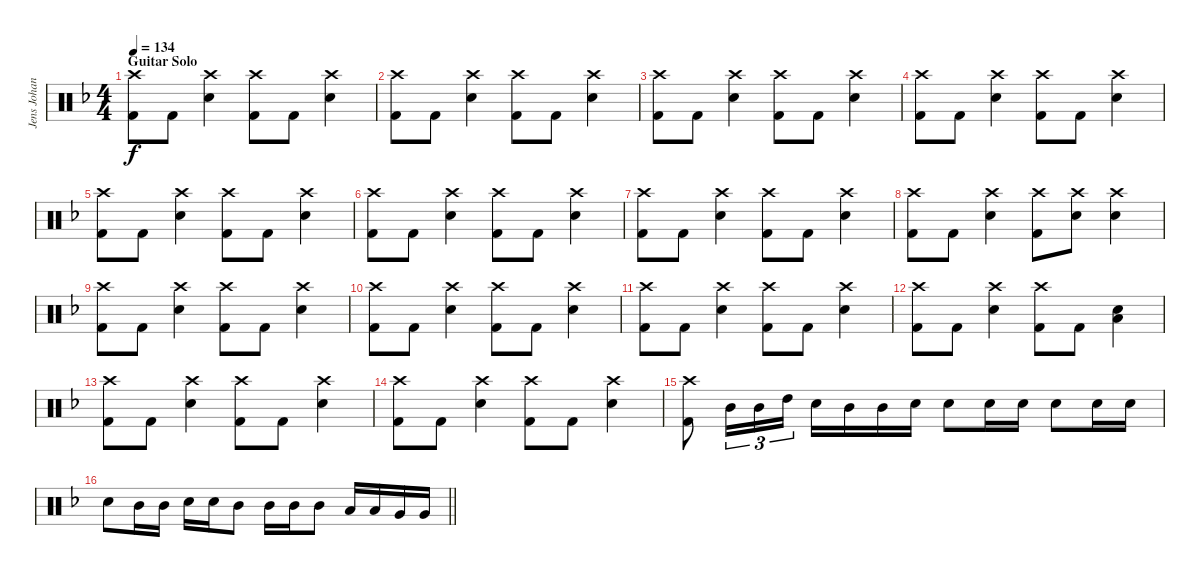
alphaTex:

\track ("Jens Johansson" "Jens Johan") {instrument percussion}
\staff {score}
\articulation defaults
\ts (4 4)
\section ("" "Guitar Solo")
\tempo 134
\clef neutral
\ks f
("Crash high (hit)" "Kick (hit) 2").8{dy f} "Kick (hit) 2".8 ("Crash high (hit)" "Electric Snare (hit)").4 ("Crash high (hit)" "Kick (hit) 2").8 "Kick (hit) 2".8 ("Crash high (hit)" "Electric Snare (hit)").4 |
("Crash high (hit)" "Kick (hit) 2").8 "Kick (hit) 2".8 ("Crash high (hit)" "Electric Snare (hit)").4 ("Crash high (hit)" "Kick (hit) 2").8 "Kick (hit) 2".8 ("Crash high (hit)" "Electric Snare (hit)").4 |
("Crash high (hit)" "Kick (hit) 2").8 "Kick (hit) 2".8 ("Crash high (hit)" "Electric Snare (hit)").4 ("Crash high (hit)" "Kick (hit) 2").8 "Kick (hit) 2".8 ("Crash high (hit)" "Electric Snare (hit)").4 |
("Crash high (hit)" "Kick (hit) 2").8 "Kick (hit) 2".8 ("Crash high (hit)" "Electric Snare (hit)").4 ("Crash high (hit)" "Kick (hit) 2").8 "Kick (hit) 2".8 ("Crash high (hit)" "Electric Snare (hit)").4 |
("Crash high (hit)" "Kick (hit) 2").8 "Kick (hit) 2".8 ("Crash high (hit)" "Electric Snare (hit)").4 ("Crash high (hit)" "Kick (hit) 2").8 "Kick (hit) 2".8 ("Crash high (hit)" "Electric Snare (hit)").4 |
("Crash high (hit)" "Kick (hit) 2").8 "Kick (hit) 2".8 ("Crash high (hit)" "Electric Snare (hit)").4 ("Crash high (hit)" "Kick (hit) 2").8 "Kick (hit) 2".8 ("Crash high (hit)" "Electric Snare (hit)").4 |
("Crash high (hit)" "Kick (hit) 2").8 "Kick (hit) 2".8 ("Crash high (hit)" "Electric Snare (hit)").4 ("Crash high (hit)" "Kick (hit) 2").8 "Kick (hit) 2".8 ("Crash high (hit)" "Electric Snare (hit)").4 |
("Crash high (hit)" "Kick (hit) 2").8 "Kick (hit) 2".8 ("Crash high (hit)" "Electric Snare (hit)").4 ("Crash high (hit)" "Kick (hit) 2").8 ("Crash high (hit)" "Electric Snare (hit)").8 ("Crash high (hit)" "Electric Snare (hit)").4 |
("Crash high (hit)" "Kick (hit) 2").8 "Kick (hit) 2".8 ("Crash high (hit)" "Electric Snare (hit)").4 ("Crash high (hit)" "Kick (hit) 2").8 "Kick (hit) 2".8 ("Crash high (hit)" "Electric Snare (hit)").4 |
("Crash high (hit)" "Kick (hit) 2").8 "Kick (hit) 2".8 ("Crash high (hit)" "Electric Snare (hit)").4 ("Crash high (hit)" "Kick (hit) 2").8 "Kick (hit) 2".8 ("Crash high (hit)" "Electric Snare (hit)").4 |
("Crash high (hit)" "Kick (hit) 2").8 "Kick (hit) 2".8 ("Crash high (hit)" "Electric Snare (hit)").4 ("Crash high (hit)" "Kick (hit) 2").8 "Kick (hit) 2".8 ("Crash high (hit)" "Electric Snare (hit)").4 |
("Crash high (hit)" "Kick (hit) 2").8 "Kick (hit) 2".8 ("Crash high (hit)" "Electric Snare (hit)").4 ("Crash high (hit)" "Kick (hit) 2").8 "Kick (hit) 2".8 ("Low Tom (hit)" "Electric Snare (hit)").4 |
("Crash high (hit)" "Kick (hit) 2").8 "Kick (hit) 2".8 ("Crash high (hit)" "Electric Snare (hit)").4 ("Crash high (hit)" "Kick (hit) 2").8 "Kick (hit) 2".8 ("Crash high (hit)" "Electric Snare (hit)").4 |
("Crash high (hit)" "Kick (hit) 2").8 "Kick (hit) 2".8 ("Crash high (hit)" "Electric Snare (hit)").4 ("Crash high (hit)" "Kick (hit) 2").8 "Kick (hit) 2".8 ("Crash high (hit)" "Electric Snare (hit)").4 |
("Crash high (hit)" "Kick (hit) 2").8 "Mid Tom (hit)".16{tu (3 2)} "Mid Tom (hit)".16{tu (3 2)} "High Tom (hit)".16{tu (3 2)} "Electric Snare (hit)".16 "Mid Tom (hit)".16 "Mid Tom (hit)".16 "Electric Snare (hit)".16 "Electric Snare (hit)".8 "Electric Snare (hit)".16 "Electric Snare (hit)".16 "Electric Snare (hit)".8 "Electric Snare (hit)".16 "Electric Snare (hit)".16 |
\barLineRight lightlight "Electric Snare (hit)".8 "Mid Tom (hit)".16 "Mid Tom (hit)".16 "Electric Snare (hit)".16 "Electric Snare (hit)".16 "Mid Tom (hit)".8 "Mid Tom (hit)".16 "Mid Tom (hit)".16 "Mid Tom (hit)".8 "Low Tom (hit)".16 "Low Tom (hit)".16 "Very Low Tom (hit)".16 "Very Low Tom (hit)".16
